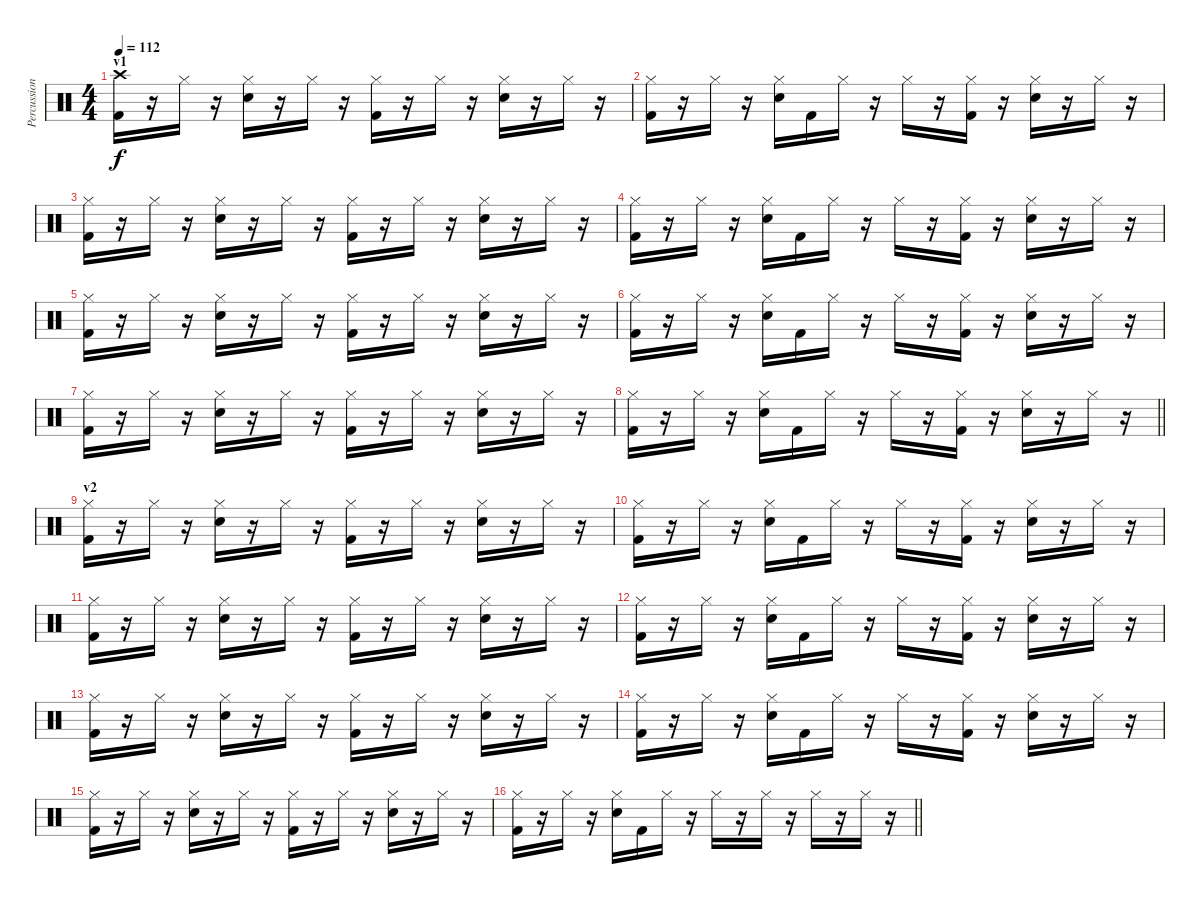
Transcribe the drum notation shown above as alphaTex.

\track ("Percussion" "Percussion") {instrument percussion}
\staff {score}
\articulation defaults
\ts (4 4)
\section ("" "v1")
\tempo 112
\clef neutral
\ks c
("Crash high (hit)" "Kick (hit) 2").16{dy f} r.16 "Hi-Hat (closed)".16 r.16 ("Hi-Hat (closed)" "Snare (hit) 2").16 r.16 "Hi-Hat (closed)".16 r.16 ("Hi-Hat (closed)" "Kick (hit) 2").16 r.16 "Hi-Hat (closed)".16 r.16 ("Hi-Hat (closed)" "Snare (hit) 2").16 r.16 "Hi-Hat (closed)".16 r.16 |
("Hi-Hat (closed)" "Kick (hit) 2").16 r.16 "Hi-Hat (closed)".16 r.16 ("Hi-Hat (closed)" "Snare (hit) 2").16 "Kick (hit) 2".16 "Hi-Hat (closed)".16 r.16 "Hi-Hat (closed)".16 r.16 ("Hi-Hat (closed)" "Kick (hit) 2").16 r.16 ("Hi-Hat (closed)" "Snare (hit) 2").16 r.16 "Hi-Hat (closed)".16 r.16 |
("Hi-Hat (closed)" "Kick (hit) 2").16 r.16 "Hi-Hat (closed)".16 r.16 ("Hi-Hat (closed)" "Snare (hit) 2").16 r.16 "Hi-Hat (closed)".16 r.16 ("Hi-Hat (closed)" "Kick (hit) 2").16 r.16 "Hi-Hat (closed)".16 r.16 ("Hi-Hat (closed)" "Snare (hit) 2").16 r.16 "Hi-Hat (closed)".16 r.16 |
("Hi-Hat (closed)" "Kick (hit) 2").16 r.16 "Hi-Hat (closed)".16 r.16 ("Hi-Hat (closed)" "Snare (hit) 2").16 "Kick (hit) 2".16 "Hi-Hat (closed)".16 r.16 "Hi-Hat (closed)".16 r.16 ("Hi-Hat (closed)" "Kick (hit) 2").16 r.16 ("Hi-Hat (closed)" "Snare (hit) 2").16 r.16 "Hi-Hat (closed)".16 r.16 |
("Hi-Hat (closed)" "Kick (hit) 2").16 r.16 "Hi-Hat (closed)".16 r.16 ("Hi-Hat (closed)" "Snare (hit) 2").16 r.16 "Hi-Hat (closed)".16 r.16 ("Hi-Hat (closed)" "Kick (hit) 2").16 r.16 "Hi-Hat (closed)".16 r.16 ("Hi-Hat (closed)" "Snare (hit) 2").16 r.16 "Hi-Hat (closed)".16 r.16 |
("Hi-Hat (closed)" "Kick (hit) 2").16 r.16 "Hi-Hat (closed)".16 r.16 ("Hi-Hat (closed)" "Snare (hit) 2").16 "Kick (hit) 2".16 "Hi-Hat (closed)".16 r.16 "Hi-Hat (closed)".16 r.16 ("Hi-Hat (closed)" "Kick (hit) 2").16 r.16 ("Hi-Hat (closed)" "Snare (hit) 2").16 r.16 "Hi-Hat (closed)".16 r.16 |
("Hi-Hat (closed)" "Kick (hit) 2").16 r.16 "Hi-Hat (closed)".16 r.16 ("Hi-Hat (closed)" "Snare (hit) 2").16 r.16 "Hi-Hat (closed)".16 r.16 ("Hi-Hat (closed)" "Kick (hit) 2").16 r.16 "Hi-Hat (closed)".16 r.16 ("Hi-Hat (closed)" "Snare (hit) 2").16 r.16 "Hi-Hat (closed)".16 r.16 |
\barLineRight lightlight
("Hi-Hat (closed)" "Kick (hit) 2").16 r.16 "Hi-Hat (closed)".16 r.16 ("Hi-Hat (closed)" "Snare (hit) 2").16 "Kick (hit) 2".16 "Hi-Hat (closed)".16 r.16 "Hi-Hat (closed)".16 r.16 ("Hi-Hat (closed)" "Kick (hit) 2").16 r.16 ("Hi-Hat (closed)" "Snare (hit) 2").16 r.16 "Hi-Hat (closed)".16 r.16 |
\section ("" "v2")
("Hi-Hat (closed)" "Kick (hit) 2").16 r.16 "Hi-Hat (closed)".16 r.16 ("Hi-Hat (closed)" "Snare (hit) 2").16 r.16 "Hi-Hat (closed)".16 r.16 ("Hi-Hat (closed)" "Kick (hit) 2").16 r.16 "Hi-Hat (closed)".16 r.16 ("Hi-Hat (closed)" "Snare (hit) 2").16 r.16 "Hi-Hat (closed)".16 r.16 |
("Hi-Hat (closed)" "Kick (hit) 2").16 r.16 "Hi-Hat (closed)".16 r.16 ("Hi-Hat (closed)" "Snare (hit) 2").16 "Kick (hit) 2".16 "Hi-Hat (closed)".16 r.16 "Hi-Hat (closed)".16 r.16 ("Hi-Hat (closed)" "Kick (hit) 2").16 r.16 ("Hi-Hat (closed)" "Snare (hit) 2").16 r.16 "Hi-Hat (closed)".16 r.16 |
("Hi-Hat (closed)" "Kick (hit) 2").16 r.16 "Hi-Hat (closed)".16 r.16 ("Hi-Hat (closed)" "Snare (hit) 2").16 r.16 "Hi-Hat (closed)".16 r.16 ("Hi-Hat (closed)" "Kick (hit) 2").16 r.16 "Hi-Hat (closed)".16 r.16 ("Hi-Hat (closed)" "Snare (hit) 2").16 r.16 "Hi-Hat (closed)".16 r.16 |
("Hi-Hat (closed)" "Kick (hit) 2").16 r.16 "Hi-Hat (closed)".16 r.16 ("Hi-Hat (closed)" "Snare (hit) 2").16 "Kick (hit) 2".16 "Hi-Hat (closed)".16 r.16 "Hi-Hat (closed)".16 r.16 ("Hi-Hat (closed)" "Kick (hit) 2").16 r.16 ("Hi-Hat (closed)" "Snare (hit) 2").16 r.16 "Hi-Hat (closed)".16 r.16 |
("Hi-Hat (closed)" "Kick (hit) 2").16 r.16 "Hi-Hat (closed)".16 r.16 ("Hi-Hat (closed)" "Snare (hit) 2").16 r.16 "Hi-Hat (closed)".16 r.16 ("Hi-Hat (closed)" "Kick (hit) 2").16 r.16 "Hi-Hat (closed)".16 r.16 ("Hi-Hat (closed)" "Snare (hit) 2").16 r.16 "Hi-Hat (closed)".16 r.16 |
("Hi-Hat (closed)" "Kick (hit) 2").16 r.16 "Hi-Hat (closed)".16 r.16 ("Hi-Hat (closed)" "Snare (hit) 2").16 "Kick (hit) 2".16 "Hi-Hat (closed)".16 r.16 "Hi-Hat (closed)".16 r.16 ("Hi-Hat (closed)" "Kick (hit) 2").16 r.16 ("Hi-Hat (closed)" "Snare (hit) 2").16 r.16 "Hi-Hat (closed)".16 r.16 |
("Hi-Hat (closed)" "Kick (hit) 2").16 r.16 "Hi-Hat (closed)".16 r.16 ("Hi-Hat (closed)" "Snare (hit) 2").16 r.16 "Hi-Hat (closed)".16 r.16 ("Hi-Hat (closed)" "Kick (hit) 2").16 r.16 "Hi-Hat (closed)".16 r.16 ("Hi-Hat (closed)" "Snare (hit) 2").16 r.16 "Hi-Hat (closed)".16 r.16 |
\barLineRight lightlight
("Hi-Hat (closed)" "Kick (hit) 2").16 r.16 "Hi-Hat (closed)".16 r.16 ("Hi-Hat (closed)" "Snare (hit) 2").16 "Kick (hit) 2".16 "Hi-Hat (closed)".16 r.16 "Hi-Hat (closed)".16 r.16 "Hi-Hat (closed)".16 r.16 "Hi-Hat (closed)".16 r.16 "Hi-Hat (closed)".16 r.16
